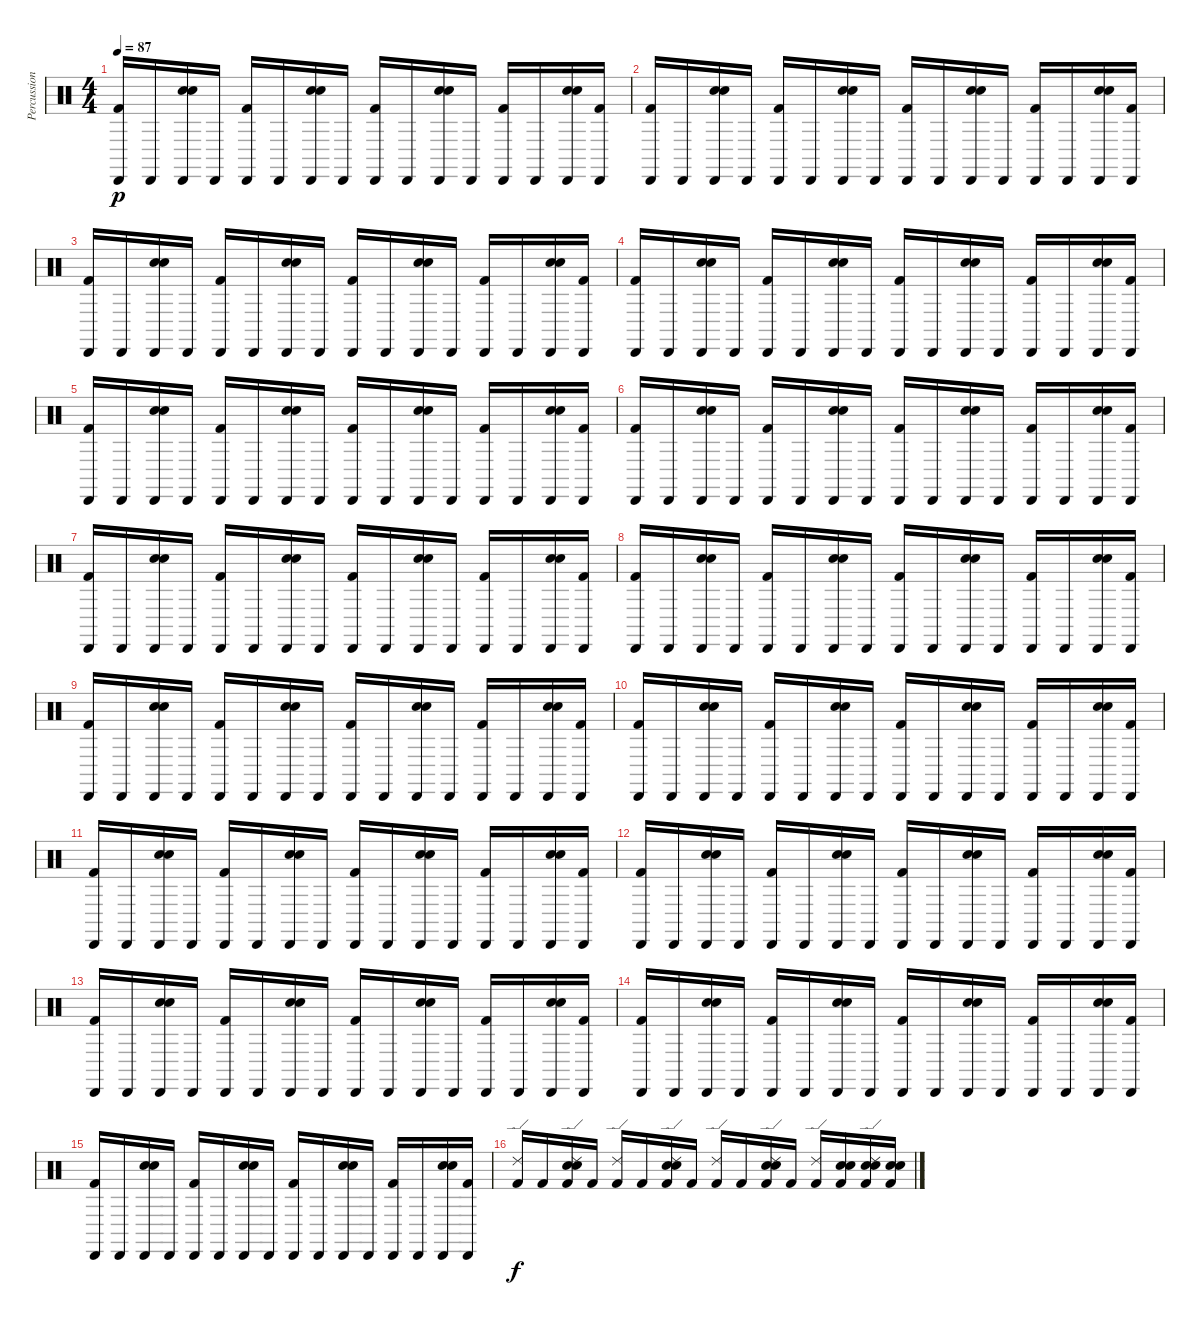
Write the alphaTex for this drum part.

\track ("Percussion" "Percussion") {instrument percussion}
\staff {score}
\articulation defaults
\ts (4 4)
\tempo 87
\clef neutral
\ks c
("Cabasa (hit)" "Kick (hit) 2").16{dy p} "Cabasa (hit)".16 ("Cabasa (hit)" "Hand Clap (hit)" "Electric Snare (hit)").16 "Cabasa (hit)".16 ("Cabasa (hit)" "Kick (hit) 2").16 "Cabasa (hit)".16 ("Cabasa (hit)" "Hand Clap (hit)" "Electric Snare (hit)").16 "Cabasa (hit)".16 ("Cabasa (hit)" "Kick (hit) 2").16 "Cabasa (hit)".16 ("Cabasa (hit)" "Hand Clap (hit)" "Electric Snare (hit)").16 "Cabasa (hit)".16 ("Cabasa (hit)" "Kick (hit) 2").16 "Cabasa (hit)".16 ("Cabasa (hit)" "Hand Clap (hit)" "Electric Snare (hit)").16 ("Cabasa (hit)" "Kick (hit) 2").16 |
("Cabasa (hit)" "Kick (hit) 2").16 "Cabasa (hit)".16 ("Cabasa (hit)" "Hand Clap (hit)" "Electric Snare (hit)").16 "Cabasa (hit)".16 ("Cabasa (hit)" "Kick (hit) 2").16 "Cabasa (hit)".16 ("Cabasa (hit)" "Hand Clap (hit)" "Electric Snare (hit)").16 "Cabasa (hit)".16 ("Cabasa (hit)" "Kick (hit) 2").16 "Cabasa (hit)".16 ("Cabasa (hit)" "Hand Clap (hit)" "Electric Snare (hit)").16 "Cabasa (hit)".16 ("Cabasa (hit)" "Kick (hit) 2").16 "Cabasa (hit)".16 ("Cabasa (hit)" "Hand Clap (hit)" "Electric Snare (hit)").16 ("Cabasa (hit)" "Kick (hit) 2").16 |
("Cabasa (hit)" "Kick (hit) 2").16 "Cabasa (hit)".16 ("Cabasa (hit)" "Hand Clap (hit)" "Electric Snare (hit)").16 "Cabasa (hit)".16 ("Cabasa (hit)" "Kick (hit) 2").16 "Cabasa (hit)".16 ("Cabasa (hit)" "Hand Clap (hit)" "Electric Snare (hit)").16 "Cabasa (hit)".16 ("Cabasa (hit)" "Kick (hit) 2").16 "Cabasa (hit)".16 ("Cabasa (hit)" "Hand Clap (hit)" "Electric Snare (hit)").16 "Cabasa (hit)".16 ("Cabasa (hit)" "Kick (hit) 2").16 "Cabasa (hit)".16 ("Cabasa (hit)" "Hand Clap (hit)" "Electric Snare (hit)").16 ("Cabasa (hit)" "Kick (hit) 2").16 |
("Cabasa (hit)" "Kick (hit) 2").16 "Cabasa (hit)".16 ("Cabasa (hit)" "Hand Clap (hit)" "Electric Snare (hit)").16 "Cabasa (hit)".16 ("Cabasa (hit)" "Kick (hit) 2").16 "Cabasa (hit)".16 ("Cabasa (hit)" "Hand Clap (hit)" "Electric Snare (hit)").16 "Cabasa (hit)".16 ("Cabasa (hit)" "Kick (hit) 2").16 "Cabasa (hit)".16 ("Cabasa (hit)" "Hand Clap (hit)" "Electric Snare (hit)").16 "Cabasa (hit)".16 ("Cabasa (hit)" "Kick (hit) 2").16 "Cabasa (hit)".16 ("Cabasa (hit)" "Hand Clap (hit)" "Electric Snare (hit)").16 ("Cabasa (hit)" "Kick (hit) 2").16 |
("Cabasa (hit)" "Kick (hit) 2").16 "Cabasa (hit)".16 ("Cabasa (hit)" "Hand Clap (hit)" "Electric Snare (hit)").16 "Cabasa (hit)".16 ("Cabasa (hit)" "Kick (hit) 2").16 "Cabasa (hit)".16 ("Cabasa (hit)" "Hand Clap (hit)" "Electric Snare (hit)").16 "Cabasa (hit)".16 ("Cabasa (hit)" "Kick (hit) 2").16 "Cabasa (hit)".16 ("Cabasa (hit)" "Hand Clap (hit)" "Electric Snare (hit)").16 "Cabasa (hit)".16 ("Cabasa (hit)" "Kick (hit) 2").16 "Cabasa (hit)".16 ("Cabasa (hit)" "Hand Clap (hit)" "Electric Snare (hit)").16 ("Cabasa (hit)" "Kick (hit) 2").16 |
("Cabasa (hit)" "Kick (hit) 2").16 "Cabasa (hit)".16 ("Cabasa (hit)" "Hand Clap (hit)" "Electric Snare (hit)").16 "Cabasa (hit)".16 ("Cabasa (hit)" "Kick (hit) 2").16 "Cabasa (hit)".16 ("Cabasa (hit)" "Hand Clap (hit)" "Electric Snare (hit)").16 "Cabasa (hit)".16 ("Cabasa (hit)" "Kick (hit) 2").16 "Cabasa (hit)".16 ("Cabasa (hit)" "Hand Clap (hit)" "Electric Snare (hit)").16 "Cabasa (hit)".16 ("Cabasa (hit)" "Kick (hit) 2").16 "Cabasa (hit)".16 ("Cabasa (hit)" "Hand Clap (hit)" "Electric Snare (hit)").16 ("Cabasa (hit)" "Kick (hit) 2").16 |
("Cabasa (hit)" "Kick (hit) 2").16 "Cabasa (hit)".16 ("Cabasa (hit)" "Hand Clap (hit)" "Electric Snare (hit)").16 "Cabasa (hit)".16 ("Cabasa (hit)" "Kick (hit) 2").16 "Cabasa (hit)".16 ("Cabasa (hit)" "Hand Clap (hit)" "Electric Snare (hit)").16 "Cabasa (hit)".16 ("Cabasa (hit)" "Kick (hit) 2").16 "Cabasa (hit)".16 ("Cabasa (hit)" "Hand Clap (hit)" "Electric Snare (hit)").16 "Cabasa (hit)".16 ("Cabasa (hit)" "Kick (hit) 2").16 "Cabasa (hit)".16 ("Cabasa (hit)" "Hand Clap (hit)" "Electric Snare (hit)").16 ("Cabasa (hit)" "Kick (hit) 2").16 |
("Cabasa (hit)" "Kick (hit) 2").16 "Cabasa (hit)".16 ("Cabasa (hit)" "Hand Clap (hit)" "Electric Snare (hit)").16 "Cabasa (hit)".16 ("Cabasa (hit)" "Kick (hit) 2").16 "Cabasa (hit)".16 ("Cabasa (hit)" "Hand Clap (hit)" "Electric Snare (hit)").16 "Cabasa (hit)".16 ("Cabasa (hit)" "Kick (hit) 2").16 "Cabasa (hit)".16 ("Cabasa (hit)" "Hand Clap (hit)" "Electric Snare (hit)").16 "Cabasa (hit)".16 ("Cabasa (hit)" "Kick (hit) 2").16 "Cabasa (hit)".16 ("Cabasa (hit)" "Hand Clap (hit)" "Electric Snare (hit)").16 ("Cabasa (hit)" "Kick (hit) 2").16 |
("Cabasa (hit)" "Kick (hit) 2").16 "Cabasa (hit)".16 ("Cabasa (hit)" "Hand Clap (hit)" "Electric Snare (hit)").16 "Cabasa (hit)".16 ("Cabasa (hit)" "Kick (hit) 2").16 "Cabasa (hit)".16 ("Cabasa (hit)" "Hand Clap (hit)" "Electric Snare (hit)").16 "Cabasa (hit)".16 ("Cabasa (hit)" "Kick (hit) 2").16 "Cabasa (hit)".16 ("Cabasa (hit)" "Hand Clap (hit)" "Electric Snare (hit)").16 "Cabasa (hit)".16 ("Cabasa (hit)" "Kick (hit) 2").16 "Cabasa (hit)".16 ("Cabasa (hit)" "Hand Clap (hit)" "Electric Snare (hit)").16 ("Cabasa (hit)" "Kick (hit) 2").16 |
("Cabasa (hit)" "Kick (hit) 2").16 "Cabasa (hit)".16 ("Cabasa (hit)" "Hand Clap (hit)" "Electric Snare (hit)").16 "Cabasa (hit)".16 ("Cabasa (hit)" "Kick (hit) 2").16 "Cabasa (hit)".16 ("Cabasa (hit)" "Hand Clap (hit)" "Electric Snare (hit)").16 "Cabasa (hit)".16 ("Cabasa (hit)" "Kick (hit) 2").16 "Cabasa (hit)".16 ("Cabasa (hit)" "Hand Clap (hit)" "Electric Snare (hit)").16 "Cabasa (hit)".16 ("Cabasa (hit)" "Kick (hit) 2").16 "Cabasa (hit)".16 ("Cabasa (hit)" "Hand Clap (hit)" "Electric Snare (hit)").16 ("Cabasa (hit)" "Kick (hit) 2").16 |
("Cabasa (hit)" "Kick (hit) 2").16 "Cabasa (hit)".16 ("Cabasa (hit)" "Hand Clap (hit)" "Electric Snare (hit)").16 "Cabasa (hit)".16 ("Cabasa (hit)" "Kick (hit) 2").16 "Cabasa (hit)".16 ("Cabasa (hit)" "Hand Clap (hit)" "Electric Snare (hit)").16 "Cabasa (hit)".16 ("Cabasa (hit)" "Kick (hit) 2").16 "Cabasa (hit)".16 ("Cabasa (hit)" "Hand Clap (hit)" "Electric Snare (hit)").16 "Cabasa (hit)".16 ("Cabasa (hit)" "Kick (hit) 2").16 "Cabasa (hit)".16 ("Cabasa (hit)" "Hand Clap (hit)" "Electric Snare (hit)").16 ("Cabasa (hit)" "Kick (hit) 2").16 |
("Cabasa (hit)" "Kick (hit) 2").16 "Cabasa (hit)".16 ("Cabasa (hit)" "Hand Clap (hit)" "Electric Snare (hit)").16 "Cabasa (hit)".16 ("Cabasa (hit)" "Kick (hit) 2").16 "Cabasa (hit)".16 ("Cabasa (hit)" "Hand Clap (hit)" "Electric Snare (hit)").16 "Cabasa (hit)".16 ("Cabasa (hit)" "Kick (hit) 2").16 "Cabasa (hit)".16 ("Cabasa (hit)" "Hand Clap (hit)" "Electric Snare (hit)").16 "Cabasa (hit)".16 ("Cabasa (hit)" "Kick (hit) 2").16 "Cabasa (hit)".16 ("Cabasa (hit)" "Hand Clap (hit)" "Electric Snare (hit)").16 ("Cabasa (hit)" "Kick (hit) 2").16 |
("Cabasa (hit)" "Kick (hit) 2").16 "Cabasa (hit)".16 ("Cabasa (hit)" "Hand Clap (hit)" "Electric Snare (hit)").16 "Cabasa (hit)".16 ("Cabasa (hit)" "Kick (hit) 2").16 "Cabasa (hit)".16 ("Cabasa (hit)" "Hand Clap (hit)" "Electric Snare (hit)").16 "Cabasa (hit)".16 ("Cabasa (hit)" "Kick (hit) 2").16 "Cabasa (hit)".16 ("Cabasa (hit)" "Hand Clap (hit)" "Electric Snare (hit)").16 "Cabasa (hit)".16 ("Cabasa (hit)" "Kick (hit) 2").16 "Cabasa (hit)".16 ("Cabasa (hit)" "Hand Clap (hit)" "Electric Snare (hit)").16 ("Cabasa (hit)" "Kick (hit) 2").16 |
("Cabasa (hit)" "Kick (hit) 2").16 "Cabasa (hit)".16 ("Cabasa (hit)" "Hand Clap (hit)" "Electric Snare (hit)").16 "Cabasa (hit)".16 ("Cabasa (hit)" "Kick (hit) 2").16 "Cabasa (hit)".16 ("Cabasa (hit)" "Hand Clap (hit)" "Electric Snare (hit)").16 "Cabasa (hit)".16 ("Cabasa (hit)" "Kick (hit) 2").16 "Cabasa (hit)".16 ("Cabasa (hit)" "Hand Clap (hit)" "Electric Snare (hit)").16 "Cabasa (hit)".16 ("Cabasa (hit)" "Kick (hit) 2").16 "Cabasa (hit)".16 ("Cabasa (hit)" "Hand Clap (hit)" "Electric Snare (hit)").16 ("Cabasa (hit)" "Kick (hit) 2").16 |
("Cabasa (hit)" "Kick (hit) 2").16 "Cabasa (hit)".16 ("Cabasa (hit)" "Hand Clap (hit)" "Electric Snare (hit)").16 "Cabasa (hit)".16 ("Cabasa (hit)" "Kick (hit) 2").16 "Cabasa (hit)".16 ("Cabasa (hit)" "Hand Clap (hit)" "Electric Snare (hit)").16 "Cabasa (hit)".16 ("Cabasa (hit)" "Kick (hit) 2").16 "Cabasa (hit)".16 ("Cabasa (hit)" "Hand Clap (hit)" "Electric Snare (hit)").16 "Cabasa (hit)".16 ("Cabasa (hit)" "Kick (hit) 2").16 "Cabasa (hit)".16 ("Cabasa (hit)" "Hand Clap (hit)" "Electric Snare (hit)").16 ("Cabasa (hit)" "Kick (hit) 2").16 |
("Ride (edge) 2" "Kick (hit) 2").16{dy f} "Kick (hit) 2".16 ("Ride (edge) 2" "Hand Clap (hit)" "Electric Snare (hit)" "Kick (hit) 2").16 "Kick (hit) 2".16 ("Ride (edge) 2" "Kick (hit) 2").16 "Kick (hit) 2".16 ("Ride (edge) 2" "Hand Clap (hit)" "Electric Snare (hit)" "Kick (hit) 2").16 "Kick (hit) 2".16 ("Ride (edge) 2" "Kick (hit) 2").16 "Kick (hit) 2".16 ("Ride (edge) 2" "Hand Clap (hit)" "Electric Snare (hit)" "Kick (hit) 2").16 "Kick (hit) 2".16 ("Ride (edge) 2" "Kick (hit) 2").16 ("Hand Clap (hit)" "Hand Clap (hit)" "Kick (hit) 2").16 ("Ride (edge) 2" "Hand Clap (hit)" "Electric Snare (hit)" "Kick (hit) 2").16 ("Hand Clap (hit)" "Hand Clap (hit)" "Kick (hit) 2").16
